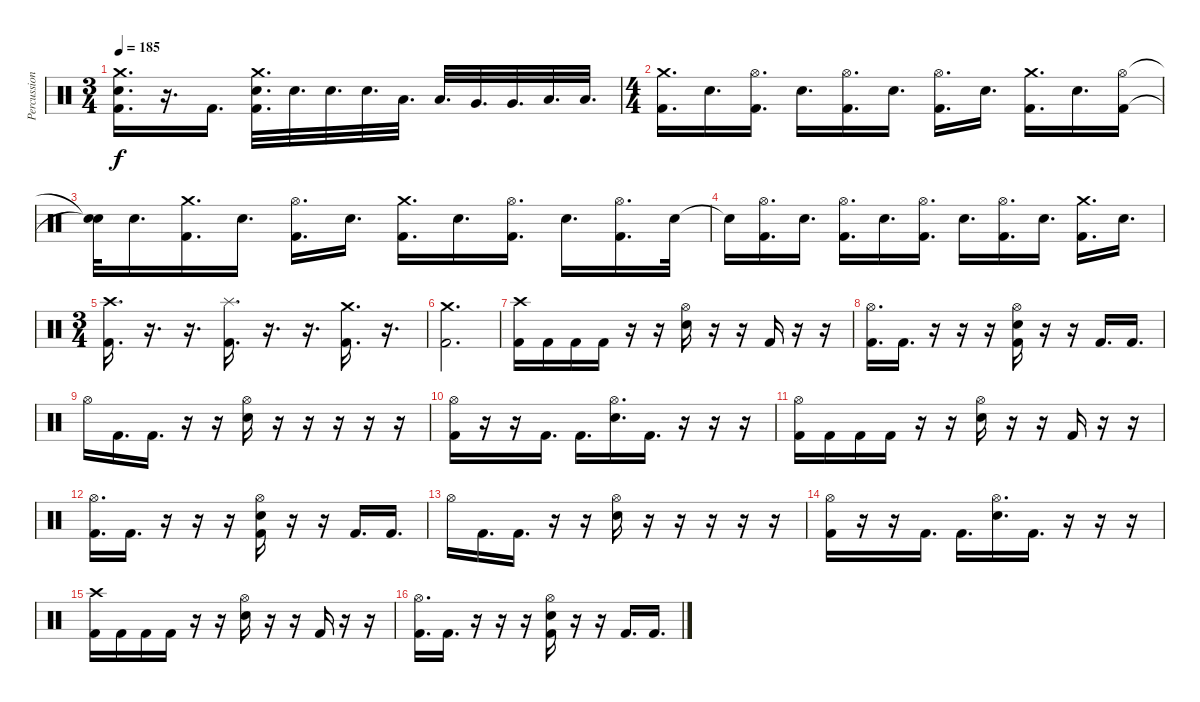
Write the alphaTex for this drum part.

\track ("Percussion" "Percussion") {instrument percussion}
\staff {score}
\articulation defaults
\ts (3 4)
\tempo 185
\clef neutral
\ks c
("Crash medium (hit)" "Electric Snare (hit)" "Kick (hit) 2").16{d dy f} r.16{d} "Kick (hit) 2".16{d} ("Crash medium (hit)" "Electric Snare (hit)" "Kick (hit) 2").32{d} "Electric Snare (hit)".32{d} "Electric Snare (hit)".32{d} "Electric Snare (hit)".32{d} "Low Tom (hit)".32{d} "Low Tom (hit)".32{d} "Very Low Tom (hit)".32{d} "Very Low Tom (hit)".32{d} "Low Floor Tom (hit)".32{d} "Low Floor Tom (hit)".32{d} |
\ts (4 4)
("Crash medium (hit)" "Kick (hit) 2").16{d} "Electric Snare (hit)".16{d} ("Hi-Hat (open)" "Kick (hit) 2").16{d} "Electric Snare (hit)".16{d} ("Hi-Hat (open)" "Kick (hit) 2").16{d} "Electric Snare (hit)".16{d} ("Hi-Hat (open)" "Kick (hit) 2").16{d} "Electric Snare (hit)".16{d} ("Crash medium (hit)" "Kick (hit) 2").16{d} "Electric Snare (hit)".16{d} ("Hi-Hat (open)" "Kick (hit) 2").16 |
("Snare (hit)"{t} "Snare (hit)"{t}).32 "Electric Snare (hit)".16{d} ("Crash medium (hit)" "Kick (hit) 2").16{d} "Electric Snare (hit)".16{d} ("Hi-Hat (open)" "Kick (hit) 2").16{d} "Electric Snare (hit)".16{d} ("Crash medium (hit)" "Kick (hit) 2").16{d} "Electric Snare (hit)".16{d} ("Hi-Hat (open)" "Kick (hit) 2").16{d} "Electric Snare (hit)".16{d} ("Hi-Hat (open)" "Kick (hit) 2").16{d} "Electric Snare (hit)".32 |
"Snare (hit)"{t}.16 ("Hi-Hat (open)" "Kick (hit) 2").16{d} "Electric Snare (hit)".16{d} ("Hi-Hat (open)" "Kick (hit) 2").16{d} "Electric Snare (hit)".16{d} ("Hi-Hat (open)" "Kick (hit) 2").16{d} "Electric Snare (hit)".16{d} ("Hi-Hat (open)" "Kick (hit) 2").16{d} "Electric Snare (hit)".16{d} ("Crash medium (hit)" "Kick (hit) 2").16{d} "Electric Snare (hit)".16{d} |
\ts (3 4)
("Crash high (hit)" "Kick (hit) 2").16{d} r.16{d} r.16{d} ("Splash (hit)" "Kick (hit) 2").16{d} r.16{d} r.16{d} ("Crash medium (hit)" "Kick (hit) 2").16{d} r.16{d} |
("Crash medium (hit)" "Kick (hit) 2").2{d} |
("Crash high (hit)" "Kick (hit) 2").16 "Kick (hit) 2".16 "Kick (hit) 2".16 "Kick (hit) 2".16 r.16 r.16 ("Hi-Hat (open)" "Electric Snare (hit)").16 r.16 r.16 "Kick (hit) 2".16 r.16 r.16 |
("Hi-Hat (open)" "Kick (hit) 2").16{d} "Kick (hit) 2".16{d} r.16 r.16 r.16 ("Hi-Hat (open)" "Electric Snare (hit)" "Kick (hit) 2").16 r.16 r.16 "Kick (hit) 2".16{d} "Kick (hit) 2".16{d} |
"Hi-Hat (open)".16 "Kick (hit) 2".16{d} "Kick (hit) 2".16{d} r.16 r.16 ("Hi-Hat (open)" "Electric Snare (hit)").16 r.16 r.16 r.16 r.16 r.16 |
("Hi-Hat (open)" "Kick (hit) 2").16 r.16 r.16 "Kick (hit) 2".16{d} "Kick (hit) 2".16{d} ("Hi-Hat (open)" "Electric Snare (hit)").16{d} "Kick (hit) 2".16{d} r.16 r.16 r.16 |
("Hi-Hat (open)" "Kick (hit) 2").16 "Kick (hit) 2".16 "Kick (hit) 2".16 "Kick (hit) 2".16 r.16 r.16 ("Hi-Hat (open)" "Electric Snare (hit)").16 r.16 r.16 "Kick (hit) 2".16 r.16 r.16 |
("Hi-Hat (open)" "Kick (hit) 2").16{d} "Kick (hit) 2".16{d} r.16 r.16 r.16 ("Hi-Hat (open)" "Electric Snare (hit)" "Kick (hit) 2").16 r.16 r.16 "Kick (hit) 2".16{d} "Kick (hit) 2".16{d} |
"Hi-Hat (open)".16 "Kick (hit) 2".16{d} "Kick (hit) 2".16{d} r.16 r.16 ("Hi-Hat (open)" "Electric Snare (hit)").16 r.16 r.16 r.16 r.16 r.16 |
("Hi-Hat (open)" "Kick (hit) 2").16 r.16 r.16 "Kick (hit) 2".16{d} "Kick (hit) 2".16{d} ("Hi-Hat (open)" "Electric Snare (hit)").16{d} "Kick (hit) 2".16{d} r.16 r.16 r.16 |
("Crash high (hit)" "Kick (hit) 2").16 "Kick (hit) 2".16 "Kick (hit) 2".16 "Kick (hit) 2".16 r.16 r.16 ("Hi-Hat (open)" "Electric Snare (hit)").16 r.16 r.16 "Kick (hit) 2".16 r.16 r.16 |
("Hi-Hat (open)" "Kick (hit) 2").16{d} "Kick (hit) 2".16{d} r.16 r.16 r.16 ("Hi-Hat (open)" "Electric Snare (hit)" "Kick (hit) 2").16 r.16 r.16 "Kick (hit) 2".16{d} "Kick (hit) 2".16{d}
